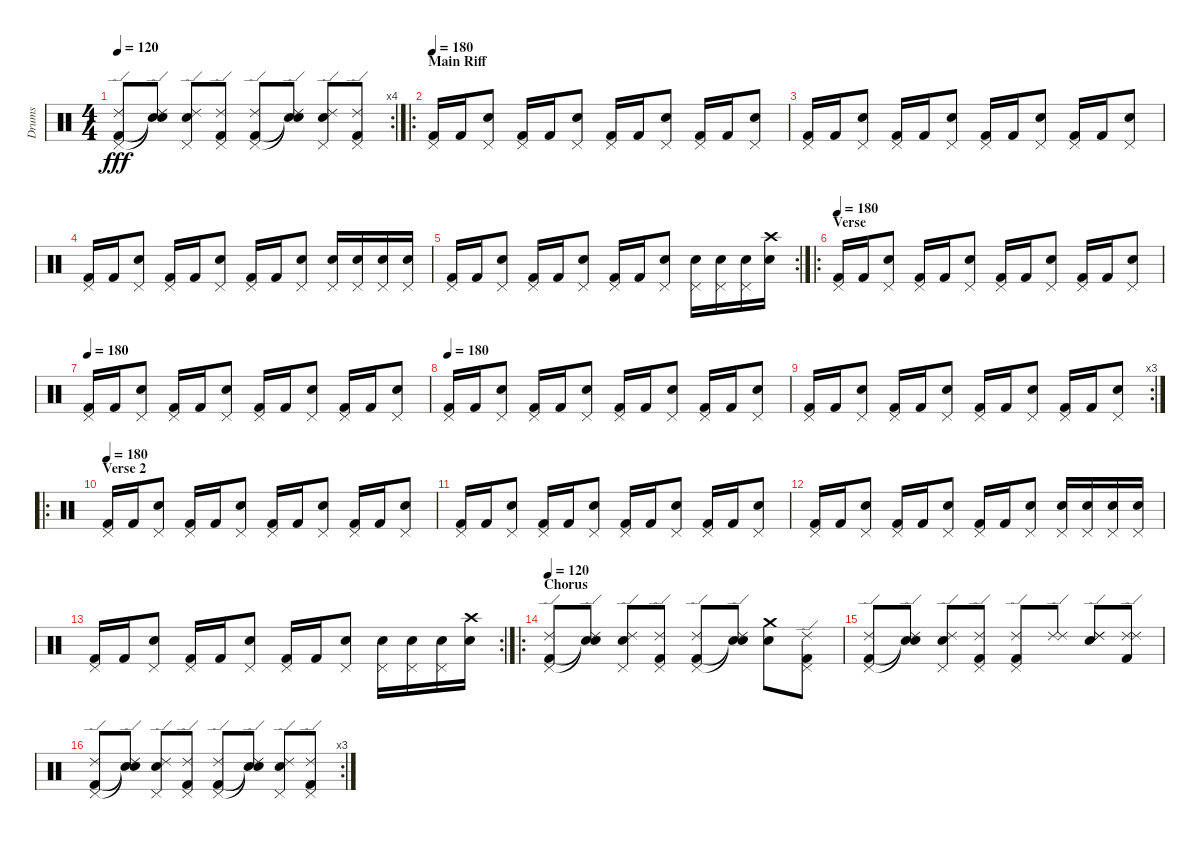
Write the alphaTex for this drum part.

\track ("Drums" "Drums") {instrument percussion}
\staff {score}
\articulation defaults
\rc 4
\ts (4 4)
\tempo 120
\clef neutral
\ks c
("Kick (hit) 2" "Pedal Hi-Hat (hit)" "Ride (edge) 2").8{dy fff} ("Snare (hit) 2"{t} "Snare (hit)"{t} "Ride (edge) 2").8 ("Snare (hit) 2" "Pedal Hi-Hat (hit)" "Ride (edge) 2").8 ("Kick (hit) 2" "Pedal Hi-Hat (hit)" "Ride (edge) 2").8 ("Kick (hit) 2" "Pedal Hi-Hat (hit)" "Ride (edge) 2").8 ("Snare (hit) 2"{t} "Snare (hit)"{t} "Ride (edge) 2").8 ("Snare (hit) 2" "Pedal Hi-Hat (hit)" "Ride (edge) 2").8 ("Kick (hit) 2" "Pedal Hi-Hat (hit)" "Ride (edge) 2").8 |
\ro
\section ("" "Main Riff")
\tempo 180
("Kick (hit) 2" "Pedal Hi-Hat (hit)").16 "Kick (hit) 2".16 ("Snare (hit) 2" "Pedal Hi-Hat (hit)").8 ("Kick (hit) 2" "Pedal Hi-Hat (hit)").16 "Kick (hit) 2".16 ("Snare (hit) 2" "Pedal Hi-Hat (hit)").8 ("Kick (hit) 2" "Pedal Hi-Hat (hit)").16 "Kick (hit) 2".16 ("Snare (hit) 2" "Pedal Hi-Hat (hit)").8 ("Kick (hit) 2" "Pedal Hi-Hat (hit)").16 "Kick (hit) 2".16 ("Snare (hit) 2" "Pedal Hi-Hat (hit)").8 |
("Kick (hit) 2" "Pedal Hi-Hat (hit)").16 "Kick (hit) 2".16 ("Snare (hit) 2" "Pedal Hi-Hat (hit)").8 ("Kick (hit) 2" "Pedal Hi-Hat (hit)").16 "Kick (hit) 2".16 ("Snare (hit) 2" "Pedal Hi-Hat (hit)").8 ("Kick (hit) 2" "Pedal Hi-Hat (hit)").16 "Kick (hit) 2".16 ("Snare (hit) 2" "Pedal Hi-Hat (hit)").8 ("Kick (hit) 2" "Pedal Hi-Hat (hit)").16 "Kick (hit) 2".16 ("Snare (hit) 2" "Pedal Hi-Hat (hit)").8 |
("Kick (hit) 2" "Pedal Hi-Hat (hit)").16 "Kick (hit) 2".16 ("Snare (hit) 2" "Pedal Hi-Hat (hit)").8 ("Kick (hit) 2" "Pedal Hi-Hat (hit)").16 "Kick (hit) 2".16 ("Snare (hit) 2" "Pedal Hi-Hat (hit)").8 ("Kick (hit) 2" "Pedal Hi-Hat (hit)").16 "Kick (hit) 2".16 ("Snare (hit) 2" "Pedal Hi-Hat (hit)").8 ("Snare (hit) 2" "Pedal Hi-Hat (hit)").16 ("Snare (hit) 2" "Pedal Hi-Hat (hit)").16 ("Snare (hit) 2" "Pedal Hi-Hat (hit)").16 ("Snare (hit) 2" "Pedal Hi-Hat (hit)").16 |
\rc 2
("Kick (hit) 2" "Pedal Hi-Hat (hit)").16 "Kick (hit) 2".16 ("Snare (hit) 2" "Pedal Hi-Hat (hit)").8 ("Kick (hit) 2" "Pedal Hi-Hat (hit)").16 "Kick (hit) 2".16 ("Snare (hit) 2" "Pedal Hi-Hat (hit)").8 ("Kick (hit) 2" "Pedal Hi-Hat (hit)").16 "Kick (hit) 2".16 ("Snare (hit) 2" "Pedal Hi-Hat (hit)").8 ("Snare (hit) 2" "Pedal Hi-Hat (hit)").16 ("Snare (hit) 2" "Pedal Hi-Hat (hit)").16 ("Snare (hit) 2" "Pedal Hi-Hat (hit)").16 ("Snare (hit) 2" "Crash high (hit)").16 |
\ro
\section ("" "Verse")
\tempo 180
("Kick (hit) 2" "Pedal Hi-Hat (hit)").16 "Kick (hit) 2".16 ("Snare (hit) 2" "Pedal Hi-Hat (hit)").8 ("Kick (hit) 2" "Pedal Hi-Hat (hit)").16 "Kick (hit) 2".16 ("Snare (hit) 2" "Pedal Hi-Hat (hit)").8 ("Kick (hit) 2" "Pedal Hi-Hat (hit)").16 "Kick (hit) 2".16 ("Snare (hit) 2" "Pedal Hi-Hat (hit)").8 ("Kick (hit) 2" "Pedal Hi-Hat (hit)").16 "Kick (hit) 2".16 ("Snare (hit) 2" "Pedal Hi-Hat (hit)").8 |
\tempo 180
("Kick (hit) 2" "Pedal Hi-Hat (hit)").16 "Kick (hit) 2".16 ("Snare (hit) 2" "Pedal Hi-Hat (hit)").8 ("Kick (hit) 2" "Pedal Hi-Hat (hit)").16 "Kick (hit) 2".16 ("Snare (hit) 2" "Pedal Hi-Hat (hit)").8 ("Kick (hit) 2" "Pedal Hi-Hat (hit)").16 "Kick (hit) 2".16 ("Snare (hit) 2" "Pedal Hi-Hat (hit)").8 ("Kick (hit) 2" "Pedal Hi-Hat (hit)").16 "Kick (hit) 2".16 ("Snare (hit) 2" "Pedal Hi-Hat (hit)").8 |
\tempo 180
("Kick (hit) 2" "Pedal Hi-Hat (hit)").16 "Kick (hit) 2".16 ("Snare (hit) 2" "Pedal Hi-Hat (hit)").8 ("Kick (hit) 2" "Pedal Hi-Hat (hit)").16 "Kick (hit) 2".16 ("Snare (hit) 2" "Pedal Hi-Hat (hit)").8 ("Kick (hit) 2" "Pedal Hi-Hat (hit)").16 "Kick (hit) 2".16 ("Snare (hit) 2" "Pedal Hi-Hat (hit)").8 ("Kick (hit) 2" "Pedal Hi-Hat (hit)").16 "Kick (hit) 2".16 ("Snare (hit) 2" "Pedal Hi-Hat (hit)").8 |
\rc 3
("Kick (hit) 2" "Pedal Hi-Hat (hit)").16 "Kick (hit) 2".16 ("Snare (hit) 2" "Pedal Hi-Hat (hit)").8 ("Kick (hit) 2" "Pedal Hi-Hat (hit)").16 "Kick (hit) 2".16 ("Snare (hit) 2" "Pedal Hi-Hat (hit)").8 ("Kick (hit) 2" "Pedal Hi-Hat (hit)").16 "Kick (hit) 2".16 ("Snare (hit) 2" "Pedal Hi-Hat (hit)").8 ("Kick (hit) 2" "Pedal Hi-Hat (hit)").16 "Kick (hit) 2".16 ("Snare (hit) 2" "Pedal Hi-Hat (hit)").8 |
\ro
\section ("" "Verse 2")
\tempo 180
("Kick (hit) 2" "Pedal Hi-Hat (hit)").16 "Kick (hit) 2".16 ("Snare (hit) 2" "Pedal Hi-Hat (hit)").8 ("Kick (hit) 2" "Pedal Hi-Hat (hit)").16 "Kick (hit) 2".16 ("Snare (hit) 2" "Pedal Hi-Hat (hit)").8 ("Kick (hit) 2" "Pedal Hi-Hat (hit)").16 "Kick (hit) 2".16 ("Snare (hit) 2" "Pedal Hi-Hat (hit)").8 ("Kick (hit) 2" "Pedal Hi-Hat (hit)").16 "Kick (hit) 2".16 ("Snare (hit) 2" "Pedal Hi-Hat (hit)").8 |
("Kick (hit) 2" "Pedal Hi-Hat (hit)").16 "Kick (hit) 2".16 ("Snare (hit) 2" "Pedal Hi-Hat (hit)").8 ("Kick (hit) 2" "Pedal Hi-Hat (hit)").16 "Kick (hit) 2".16 ("Snare (hit) 2" "Pedal Hi-Hat (hit)").8 ("Kick (hit) 2" "Pedal Hi-Hat (hit)").16 "Kick (hit) 2".16 ("Snare (hit) 2" "Pedal Hi-Hat (hit)").8 ("Kick (hit) 2" "Pedal Hi-Hat (hit)").16 "Kick (hit) 2".16 ("Snare (hit) 2" "Pedal Hi-Hat (hit)").8 |
("Kick (hit) 2" "Pedal Hi-Hat (hit)").16 "Kick (hit) 2".16 ("Snare (hit) 2" "Pedal Hi-Hat (hit)").8 ("Kick (hit) 2" "Pedal Hi-Hat (hit)").16 "Kick (hit) 2".16 ("Snare (hit) 2" "Pedal Hi-Hat (hit)").8 ("Kick (hit) 2" "Pedal Hi-Hat (hit)").16 "Kick (hit) 2".16 ("Snare (hit) 2" "Pedal Hi-Hat (hit)").8 ("Snare (hit) 2" "Pedal Hi-Hat (hit)").16 ("Snare (hit) 2" "Pedal Hi-Hat (hit)").16 ("Snare (hit) 2" "Pedal Hi-Hat (hit)").16 ("Snare (hit) 2" "Pedal Hi-Hat (hit)").16 |
\rc 2
("Kick (hit) 2" "Pedal Hi-Hat (hit)").16 "Kick (hit) 2".16 ("Snare (hit) 2" "Pedal Hi-Hat (hit)").8 ("Kick (hit) 2" "Pedal Hi-Hat (hit)").16 "Kick (hit) 2".16 ("Snare (hit) 2" "Pedal Hi-Hat (hit)").8 ("Kick (hit) 2" "Pedal Hi-Hat (hit)").16 "Kick (hit) 2".16 ("Snare (hit) 2" "Pedal Hi-Hat (hit)").8 ("Snare (hit) 2" "Pedal Hi-Hat (hit)").16 ("Snare (hit) 2" "Pedal Hi-Hat (hit)").16 ("Snare (hit) 2" "Pedal Hi-Hat (hit)").16 ("Snare (hit) 2" "Crash high (hit)").16 |
\ro
\section ("" "Chorus")
\tempo 120
("Kick (hit) 2" "Pedal Hi-Hat (hit)" "Ride (edge) 2").8 ("Snare (hit) 2"{t} "Snare (hit)"{t} "Ride (edge) 2").8 ("Snare (hit) 2" "Pedal Hi-Hat (hit)" "Ride (edge) 2").8 ("Kick (hit) 2" "Pedal Hi-Hat (hit)" "Ride (edge) 2").8 ("Kick (hit) 2" "Pedal Hi-Hat (hit)" "Ride (edge) 2").8 ("Snare (hit) 2"{t} "Snare (hit)"{t} "Ride (edge) 2").8 ("Snare (hit) 2" "Crash medium (hit)").8 ("Kick (hit) 2" "Pedal Hi-Hat (hit)" "Ride (edge) 2").8 |
("Kick (hit) 2" "Pedal Hi-Hat (hit)" "Ride (edge) 2").8 ("Snare (hit) 2"{t} "Snare (hit)"{t} "Ride (edge) 2").8 ("Snare (hit) 2" "Pedal Hi-Hat (hit)" "Ride (edge) 2").8 ("Kick (hit) 2" "Pedal Hi-Hat (hit)" "Ride (edge) 2").8 ("Kick (hit) 2" "Pedal Hi-Hat (hit)" "Ride (edge) 2").8 ("Ride (edge) 2" "Ride (edge) 2").8 ("Snare (hit) 2" "Ride (edge) 2" "Ride (edge) 2").8 ("Kick (hit) 2" "Ride (edge) 2" "Ride (edge) 2").8 |
\rc 3
("Kick (hit) 2" "Pedal Hi-Hat (hit)" "Ride (edge) 2").8 ("Snare (hit) 2"{t} "Snare (hit)"{t} "Ride (edge) 2").8 ("Snare (hit) 2" "Pedal Hi-Hat (hit)" "Ride (edge) 2").8 ("Kick (hit) 2" "Pedal Hi-Hat (hit)" "Ride (edge) 2").8 ("Kick (hit) 2" "Pedal Hi-Hat (hit)" "Ride (edge) 2").8 ("Snare (hit) 2"{t} "Snare (hit)"{t} "Ride (edge) 2").8 ("Snare (hit) 2" "Pedal Hi-Hat (hit)" "Ride (edge) 2").8 ("Kick (hit) 2" "Pedal Hi-Hat (hit)" "Ride (edge) 2").8
